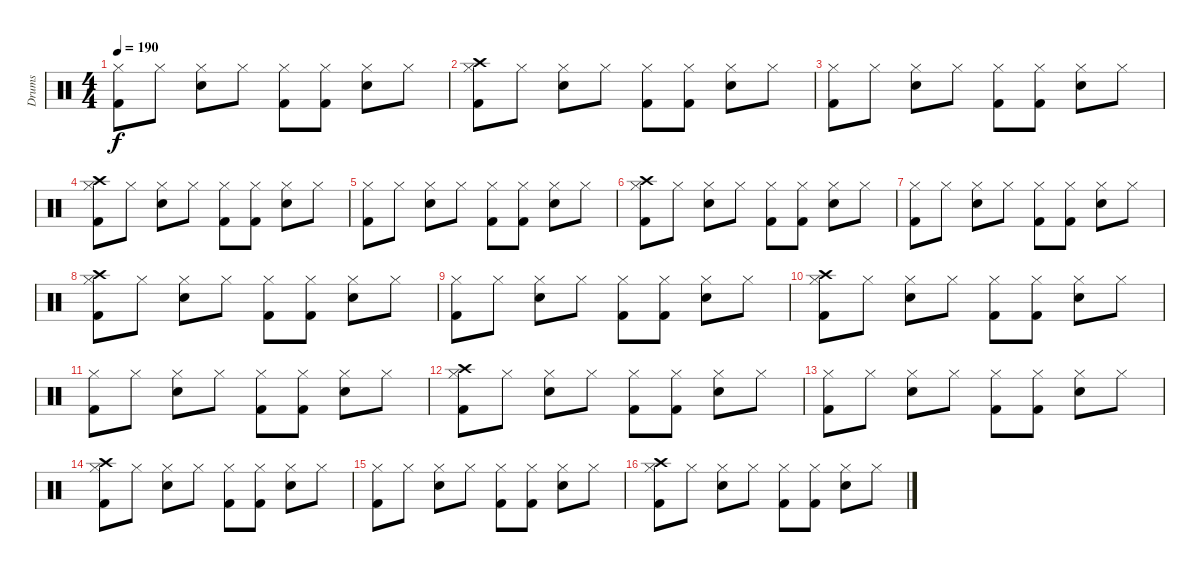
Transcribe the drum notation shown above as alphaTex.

\track ("Drums" "Drums") {instrument percussion}
\staff {score}
\articulation defaults
\ts (4 4)
\tempo 190
\clef neutral
\ks c
("Kick (hit) 2" "Hi-Hat (closed)").8{dy f} "Hi-Hat (closed)".8 ("Snare (hit) 2" "Hi-Hat (closed)").8 "Hi-Hat (closed)".8 ("Kick (hit) 2" "Hi-Hat (closed)").8 ("Kick (hit) 2" "Hi-Hat (closed)").8 ("Snare (hit) 2" "Hi-Hat (closed)").8 "Hi-Hat (closed)".8 |
("Kick (hit) 2" "Hi-Hat (closed)" "Crash high (hit)").8 "Hi-Hat (closed)".8 ("Snare (hit) 2" "Hi-Hat (closed)").8 "Hi-Hat (closed)".8 ("Kick (hit) 2" "Hi-Hat (closed)").8 ("Kick (hit) 2" "Hi-Hat (closed)").8 ("Snare (hit) 2" "Hi-Hat (closed)").8 "Hi-Hat (closed)".8 |
("Kick (hit) 2" "Hi-Hat (closed)").8 "Hi-Hat (closed)".8 ("Snare (hit) 2" "Hi-Hat (closed)").8 "Hi-Hat (closed)".8 ("Kick (hit) 2" "Hi-Hat (closed)").8 ("Kick (hit) 2" "Hi-Hat (closed)").8 ("Snare (hit) 2" "Hi-Hat (closed)").8 "Hi-Hat (closed)".8 |
("Kick (hit) 2" "Hi-Hat (closed)" "Crash high (hit)").8 "Hi-Hat (closed)".8 ("Snare (hit) 2" "Hi-Hat (closed)").8 "Hi-Hat (closed)".8 ("Kick (hit) 2" "Hi-Hat (closed)").8 ("Kick (hit) 2" "Hi-Hat (closed)").8 ("Snare (hit) 2" "Hi-Hat (closed)").8 "Hi-Hat (closed)".8 |
("Kick (hit) 2" "Hi-Hat (closed)").8 "Hi-Hat (closed)".8 ("Snare (hit) 2" "Hi-Hat (closed)").8 "Hi-Hat (closed)".8 ("Kick (hit) 2" "Hi-Hat (closed)").8 ("Kick (hit) 2" "Hi-Hat (closed)").8 ("Snare (hit) 2" "Hi-Hat (closed)").8 "Hi-Hat (closed)".8 |
("Kick (hit) 2" "Hi-Hat (closed)" "Crash high (hit)").8 "Hi-Hat (closed)".8 ("Snare (hit) 2" "Hi-Hat (closed)").8 "Hi-Hat (closed)".8 ("Kick (hit) 2" "Hi-Hat (closed)").8 ("Kick (hit) 2" "Hi-Hat (closed)").8 ("Snare (hit) 2" "Hi-Hat (closed)").8 "Hi-Hat (closed)".8 |
("Kick (hit) 2" "Hi-Hat (closed)").8 "Hi-Hat (closed)".8 ("Snare (hit) 2" "Hi-Hat (closed)").8 "Hi-Hat (closed)".8 ("Kick (hit) 2" "Hi-Hat (closed)").8 ("Kick (hit) 2" "Hi-Hat (closed)").8 ("Snare (hit) 2" "Hi-Hat (closed)").8 "Hi-Hat (closed)".8 |
("Kick (hit) 2" "Hi-Hat (closed)" "Crash high (hit)").8 "Hi-Hat (closed)".8 ("Snare (hit) 2" "Hi-Hat (closed)").8 "Hi-Hat (closed)".8 ("Kick (hit) 2" "Hi-Hat (closed)").8 ("Kick (hit) 2" "Hi-Hat (closed)").8 ("Snare (hit) 2" "Hi-Hat (closed)").8 "Hi-Hat (closed)".8 |
("Kick (hit) 2" "Hi-Hat (closed)").8 "Hi-Hat (closed)".8 ("Snare (hit) 2" "Hi-Hat (closed)").8 "Hi-Hat (closed)".8 ("Kick (hit) 2" "Hi-Hat (closed)").8 ("Kick (hit) 2" "Hi-Hat (closed)").8 ("Snare (hit) 2" "Hi-Hat (closed)").8 "Hi-Hat (closed)".8 |
("Kick (hit) 2" "Hi-Hat (closed)" "Crash high (hit)").8 "Hi-Hat (closed)".8 ("Snare (hit) 2" "Hi-Hat (closed)").8 "Hi-Hat (closed)".8 ("Kick (hit) 2" "Hi-Hat (closed)").8 ("Kick (hit) 2" "Hi-Hat (closed)").8 ("Snare (hit) 2" "Hi-Hat (closed)").8 "Hi-Hat (closed)".8 |
("Kick (hit) 2" "Hi-Hat (closed)").8 "Hi-Hat (closed)".8 ("Snare (hit) 2" "Hi-Hat (closed)").8 "Hi-Hat (closed)".8 ("Kick (hit) 2" "Hi-Hat (closed)").8 ("Kick (hit) 2" "Hi-Hat (closed)").8 ("Snare (hit) 2" "Hi-Hat (closed)").8 "Hi-Hat (closed)".8 |
("Kick (hit) 2" "Hi-Hat (closed)" "Crash high (hit)").8 "Hi-Hat (closed)".8 ("Snare (hit) 2" "Hi-Hat (closed)").8 "Hi-Hat (closed)".8 ("Kick (hit) 2" "Hi-Hat (closed)").8 ("Kick (hit) 2" "Hi-Hat (closed)").8 ("Snare (hit) 2" "Hi-Hat (closed)").8 "Hi-Hat (closed)".8 |
("Kick (hit) 2" "Hi-Hat (closed)").8 "Hi-Hat (closed)".8 ("Snare (hit) 2" "Hi-Hat (closed)").8 "Hi-Hat (closed)".8 ("Kick (hit) 2" "Hi-Hat (closed)").8 ("Kick (hit) 2" "Hi-Hat (closed)").8 ("Snare (hit) 2" "Hi-Hat (closed)").8 "Hi-Hat (closed)".8 |
("Kick (hit) 2" "Hi-Hat (closed)" "Crash high (hit)").8 "Hi-Hat (closed)".8 ("Snare (hit) 2" "Hi-Hat (closed)").8 "Hi-Hat (closed)".8 ("Kick (hit) 2" "Hi-Hat (closed)").8 ("Kick (hit) 2" "Hi-Hat (closed)").8 ("Snare (hit) 2" "Hi-Hat (closed)").8 "Hi-Hat (closed)".8 |
("Kick (hit) 2" "Hi-Hat (closed)").8 "Hi-Hat (closed)".8 ("Snare (hit) 2" "Hi-Hat (closed)").8 "Hi-Hat (closed)".8 ("Kick (hit) 2" "Hi-Hat (closed)").8 ("Kick (hit) 2" "Hi-Hat (closed)").8 ("Snare (hit) 2" "Hi-Hat (closed)").8 "Hi-Hat (closed)".8 |
("Kick (hit) 2" "Hi-Hat (closed)" "Crash high (hit)").8 "Hi-Hat (closed)".8 ("Snare (hit) 2" "Hi-Hat (closed)").8 "Hi-Hat (closed)".8 ("Kick (hit) 2" "Hi-Hat (closed)").8 ("Kick (hit) 2" "Hi-Hat (closed)").8 ("Snare (hit) 2" "Hi-Hat (closed)").8 "Hi-Hat (closed)".8
